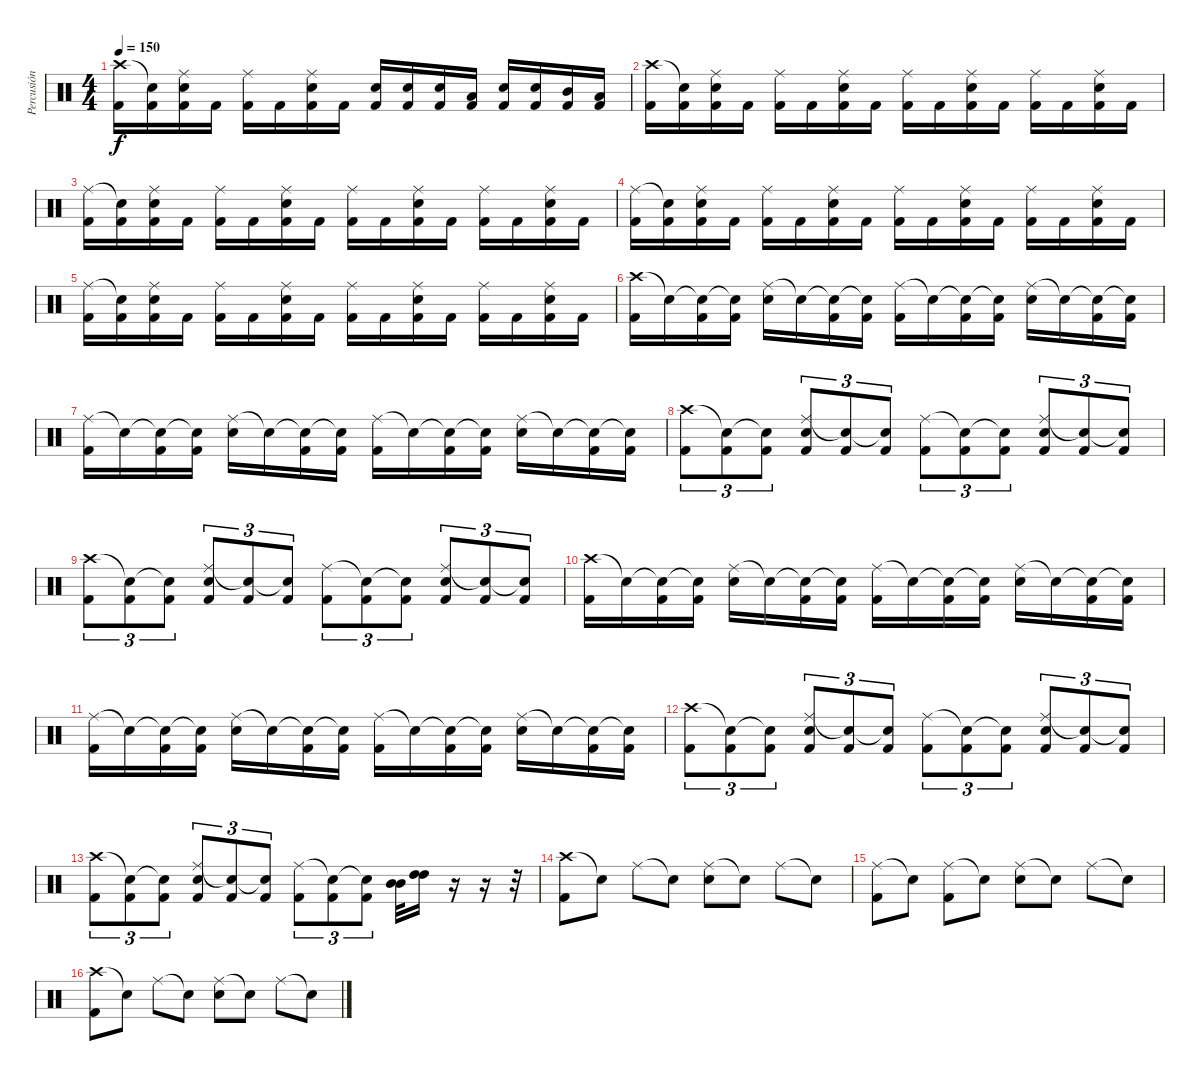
\track ("Percusión" "Percusión") {instrument percussion}
\staff {score}
\articulation defaults
\ts (4 4)
\tempo 150
\clef neutral
\ks c
("Crash high (hit)" "Kick (hit) 2").16{dy f} ("Snare (hit)"{t} "Kick (hit) 2").16 ("Ride (middle)" "Electric Snare (hit)" "Kick (hit) 2").16 "Kick (hit) 2".16 ("Ride (middle)" "Kick (hit) 2").16 "Kick (hit) 2".16 ("Ride (middle)" "Electric Snare (hit)" "Kick (hit) 2").16 "Kick (hit) 2".16 ("Electric Snare (hit)" "Kick (hit) 2").16 ("Electric Snare (hit)" "Kick (hit) 2").16 ("Electric Snare (hit)" "Kick (hit) 2").16 ("Low Tom (hit)" "Kick (hit) 2").16 ("Electric Snare (hit)" "Kick (hit) 2").16 ("Electric Snare (hit)" "Kick (hit) 2").16 ("Mid Tom (hit)" "Kick (hit) 2").16 ("Low Tom (hit)" "Kick (hit) 2").16 |
("Crash high (hit)" "Kick (hit) 2").16 ("Snare (hit)"{t} "Kick (hit) 2").16 ("Ride (middle)" "Electric Snare (hit)" "Kick (hit) 2").16 "Kick (hit) 2".16 ("Ride (middle)" "Kick (hit) 2").16 "Kick (hit) 2".16 ("Ride (middle)" "Electric Snare (hit)" "Kick (hit) 2").16 "Kick (hit) 2".16 ("Ride (middle)" "Kick (hit) 2").16 "Kick (hit) 2".16 ("Ride (middle)" "Electric Snare (hit)" "Kick (hit) 2").16 "Kick (hit) 2".16 ("Ride (middle)" "Kick (hit) 2").16 "Kick (hit) 2".16 ("Ride (middle)" "Electric Snare (hit)" "Kick (hit) 2").16 "Kick (hit) 2".16 |
("Ride (middle)" "Kick (hit) 2").16 ("Snare (hit)"{t} "Kick (hit) 2").16 ("Ride (middle)" "Electric Snare (hit)" "Kick (hit) 2").16 "Kick (hit) 2".16 ("Ride (middle)" "Kick (hit) 2").16 "Kick (hit) 2".16 ("Ride (middle)" "Electric Snare (hit)" "Kick (hit) 2").16 "Kick (hit) 2".16 ("Ride (middle)" "Kick (hit) 2").16 "Kick (hit) 2".16 ("Ride (middle)" "Electric Snare (hit)" "Kick (hit) 2").16 "Kick (hit) 2".16 ("Ride (middle)" "Kick (hit) 2").16 "Kick (hit) 2".16 ("Ride (middle)" "Electric Snare (hit)" "Kick (hit) 2").16 "Kick (hit) 2".16 |
("Ride (middle)" "Kick (hit) 2").16 ("Snare (hit)"{t} "Kick (hit) 2").16 ("Ride (middle)" "Electric Snare (hit)" "Kick (hit) 2").16 "Kick (hit) 2".16 ("Ride (middle)" "Kick (hit) 2").16 "Kick (hit) 2".16 ("Ride (middle)" "Electric Snare (hit)" "Kick (hit) 2").16 "Kick (hit) 2".16 ("Ride (middle)" "Kick (hit) 2").16 "Kick (hit) 2".16 ("Ride (middle)" "Electric Snare (hit)" "Kick (hit) 2").16 "Kick (hit) 2".16 ("Ride (middle)" "Kick (hit) 2").16 "Kick (hit) 2".16 ("Ride (middle)" "Electric Snare (hit)" "Kick (hit) 2").16 "Kick (hit) 2".16 |
("Ride (middle)" "Kick (hit) 2").16 ("Snare (hit)"{t} "Kick (hit) 2").16 ("Ride (middle)" "Electric Snare (hit)" "Kick (hit) 2").16 "Kick (hit) 2".16 ("Ride (middle)" "Kick (hit) 2").16 "Kick (hit) 2".16 ("Ride (middle)" "Electric Snare (hit)" "Kick (hit) 2").16 "Kick (hit) 2".16 ("Ride (middle)" "Kick (hit) 2").16 "Kick (hit) 2".16 ("Ride (middle)" "Electric Snare (hit)" "Kick (hit) 2").16 "Kick (hit) 2".16 ("Ride (middle)" "Kick (hit) 2").16 "Kick (hit) 2".16 ("Ride (middle)" "Electric Snare (hit)" "Kick (hit) 2").16 "Kick (hit) 2".16 |
("Crash high (hit)" "Kick (hit) 2").16 "Snare (hit)"{t}.16 ("Snare (hit)"{t} "Kick (hit) 2").16 ("Snare (hit)"{t} "Kick (hit) 2").16 ("Ride (middle)" "Electric Snare (hit)").16 "Snare (hit)"{t}.16 ("Snare (hit)"{t} "Kick (hit) 2").16 ("Snare (hit)"{t} "Kick (hit) 2").16 ("Ride (middle)" "Kick (hit) 2").16 "Snare (hit)"{t}.16 ("Snare (hit)"{t} "Kick (hit) 2").16 ("Snare (hit)"{t} "Kick (hit) 2").16 ("Ride (middle)" "Electric Snare (hit)").16 "Snare (hit)"{t}.16 ("Snare (hit)"{t} "Kick (hit) 2").16 ("Snare (hit)"{t} "Kick (hit) 2").16 |
("Ride (middle)" "Kick (hit) 2").16 "Snare (hit)"{t}.16 ("Snare (hit)"{t} "Kick (hit) 2").16 ("Snare (hit)"{t} "Kick (hit) 2").16 ("Ride (middle)" "Electric Snare (hit)").16 "Snare (hit)"{t}.16 ("Snare (hit)"{t} "Kick (hit) 2").16 ("Snare (hit)"{t} "Kick (hit) 2").16 ("Ride (middle)" "Kick (hit) 2").16 "Snare (hit)"{t}.16 ("Snare (hit)"{t} "Kick (hit) 2").16 ("Snare (hit)"{t} "Kick (hit) 2").16 ("Ride (middle)" "Electric Snare (hit)").16 "Snare (hit)"{t}.16 ("Snare (hit)"{t} "Kick (hit) 2").16 ("Snare (hit)"{t} "Kick (hit) 2").16 |
("Crash high (hit)" "Kick (hit) 2").8{tu (3 2)} ("Snare (hit)"{t} "Kick (hit) 2").8{tu (3 2)} ("Snare (hit)"{t} "Kick (hit) 2").8{tu (3 2)} ("Ride (middle)" "Electric Snare (hit)" "Kick (hit) 2").8{tu (3 2)} ("Snare (hit)"{t} "Kick (hit) 2").8{tu (3 2)} ("Snare (hit)"{t} "Kick (hit) 2").8{tu (3 2)} ("Ride (middle)" "Kick (hit) 2").8{tu (3 2)} ("Snare (hit)"{t} "Kick (hit) 2").8{tu (3 2)} ("Snare (hit)"{t} "Kick (hit) 2").8{tu (3 2)} ("Ride (middle)" "Electric Snare (hit)" "Kick (hit) 2").8{tu (3 2)} ("Snare (hit)"{t} "Kick (hit) 2").8{tu (3 2)} ("Snare (hit)"{t} "Kick (hit) 2").8{tu (3 2)} |
("Crash high (hit)" "Kick (hit) 2").8{tu (3 2)} ("Snare (hit)"{t} "Kick (hit) 2").8{tu (3 2)} ("Snare (hit)"{t} "Kick (hit) 2").8{tu (3 2)} ("Ride (middle)" "Electric Snare (hit)" "Kick (hit) 2").8{tu (3 2)} ("Snare (hit)"{t} "Kick (hit) 2").8{tu (3 2)} ("Snare (hit)"{t} "Kick (hit) 2").8{tu (3 2)} ("Ride (middle)" "Kick (hit) 2").8{tu (3 2)} ("Snare (hit)"{t} "Kick (hit) 2").8{tu (3 2)} ("Snare (hit)"{t} "Kick (hit) 2").8{tu (3 2)} ("Ride (middle)" "Electric Snare (hit)" "Kick (hit) 2").8{tu (3 2)} ("Snare (hit)"{t} "Kick (hit) 2").8{tu (3 2)} ("Snare (hit)"{t} "Kick (hit) 2").8{tu (3 2)} |
("Crash high (hit)" "Kick (hit) 2").16 "Snare (hit)"{t}.16 ("Snare (hit)"{t} "Kick (hit) 2").16 ("Snare (hit)"{t} "Kick (hit) 2").16 ("Ride (middle)" "Electric Snare (hit)").16 "Snare (hit)"{t}.16 ("Snare (hit)"{t} "Kick (hit) 2").16 ("Snare (hit)"{t} "Kick (hit) 2").16 ("Ride (middle)" "Kick (hit) 2").16 "Snare (hit)"{t}.16 ("Snare (hit)"{t} "Kick (hit) 2").16 ("Snare (hit)"{t} "Kick (hit) 2").16 ("Ride (middle)" "Electric Snare (hit)").16 "Snare (hit)"{t}.16 ("Snare (hit)"{t} "Kick (hit) 2").16 ("Snare (hit)"{t} "Kick (hit) 2").16 |
("Ride (middle)" "Kick (hit) 2").16 "Snare (hit)"{t}.16 ("Snare (hit)"{t} "Kick (hit) 2").16 ("Snare (hit)"{t} "Kick (hit) 2").16 ("Ride (middle)" "Electric Snare (hit)").16 "Snare (hit)"{t}.16 ("Snare (hit)"{t} "Kick (hit) 2").16 ("Snare (hit)"{t} "Kick (hit) 2").16 ("Ride (middle)" "Kick (hit) 2").16 "Snare (hit)"{t}.16 ("Snare (hit)"{t} "Kick (hit) 2").16 ("Snare (hit)"{t} "Kick (hit) 2").16 ("Ride (middle)" "Electric Snare (hit)").16 "Snare (hit)"{t}.16 ("Snare (hit)"{t} "Kick (hit) 2").16 ("Snare (hit)"{t} "Kick (hit) 2").16 |
("Crash high (hit)" "Kick (hit) 2").8{tu (3 2)} ("Snare (hit)"{t} "Kick (hit) 2").8{tu (3 2)} ("Snare (hit)"{t} "Kick (hit) 2").8{tu (3 2)} ("Ride (middle)" "Electric Snare (hit)" "Kick (hit) 2").8{tu (3 2)} ("Snare (hit)"{t} "Kick (hit) 2").8{tu (3 2)} ("Snare (hit)"{t} "Kick (hit) 2").8{tu (3 2)} ("Ride (middle)" "Kick (hit) 2").8{tu (3 2)} ("Snare (hit)"{t} "Kick (hit) 2").8{tu (3 2)} ("Snare (hit)"{t} "Kick (hit) 2").8{tu (3 2)} ("Ride (middle)" "Electric Snare (hit)" "Kick (hit) 2").8{tu (3 2)} ("Snare (hit)"{t} "Kick (hit) 2").8{tu (3 2)} ("Snare (hit)"{t} "Kick (hit) 2").8{tu (3 2)} |
("Crash high (hit)" "Kick (hit) 2").8{tu (3 2)} ("Snare (hit)"{t} "Kick (hit) 2").8{tu (3 2)} ("Snare (hit)"{t} "Kick (hit) 2").8{tu (3 2)} ("Ride (middle)" "Electric Snare (hit)" "Kick (hit) 2").8{tu (3 2)} ("Snare (hit)"{t} "Kick (hit) 2").8{tu (3 2)} ("Snare (hit)"{t} "Kick (hit) 2").8{tu (3 2)} ("Ride (middle)" "Kick (hit) 2").8{tu (3 2)} ("Snare (hit)"{t} "Kick (hit) 2").8{tu (3 2)} ("Snare (hit)"{t} "Kick (hit) 2").8{tu (3 2)} ("Mid Tom (hit)" "Mid Tom (hit)").32 ("High Tom (hit)" "High Tom (hit)").16 r.16 r.16 r.32 |
("Crash high (hit)" "Kick (hit) 2").8 "Snare (hit)"{t}.8 "Ride (middle)".8 "Snare (hit)"{t}.8 ("Ride (middle)" "Electric Snare (hit)").8 "Snare (hit)"{t}.8 "Ride (middle)".8 "Snare (hit)"{t}.8 |
("Ride (middle)" "Kick (hit) 2").8 "Snare (hit)"{t}.8 ("Ride (middle)" "Kick (hit) 2").8 "Snare (hit)"{t}.8 ("Ride (middle)" "Electric Snare (hit)").8 "Snare (hit)"{t}.8 "Ride (middle)".8 "Snare (hit)"{t}.8 |
("Crash high (hit)" "Kick (hit) 2").8 "Snare (hit)"{t}.8 "Ride (middle)".8 "Snare (hit)"{t}.8 ("Ride (middle)" "Electric Snare (hit)").8 "Snare (hit)"{t}.8 "Ride (middle)".8 "Snare (hit)"{t}.8
